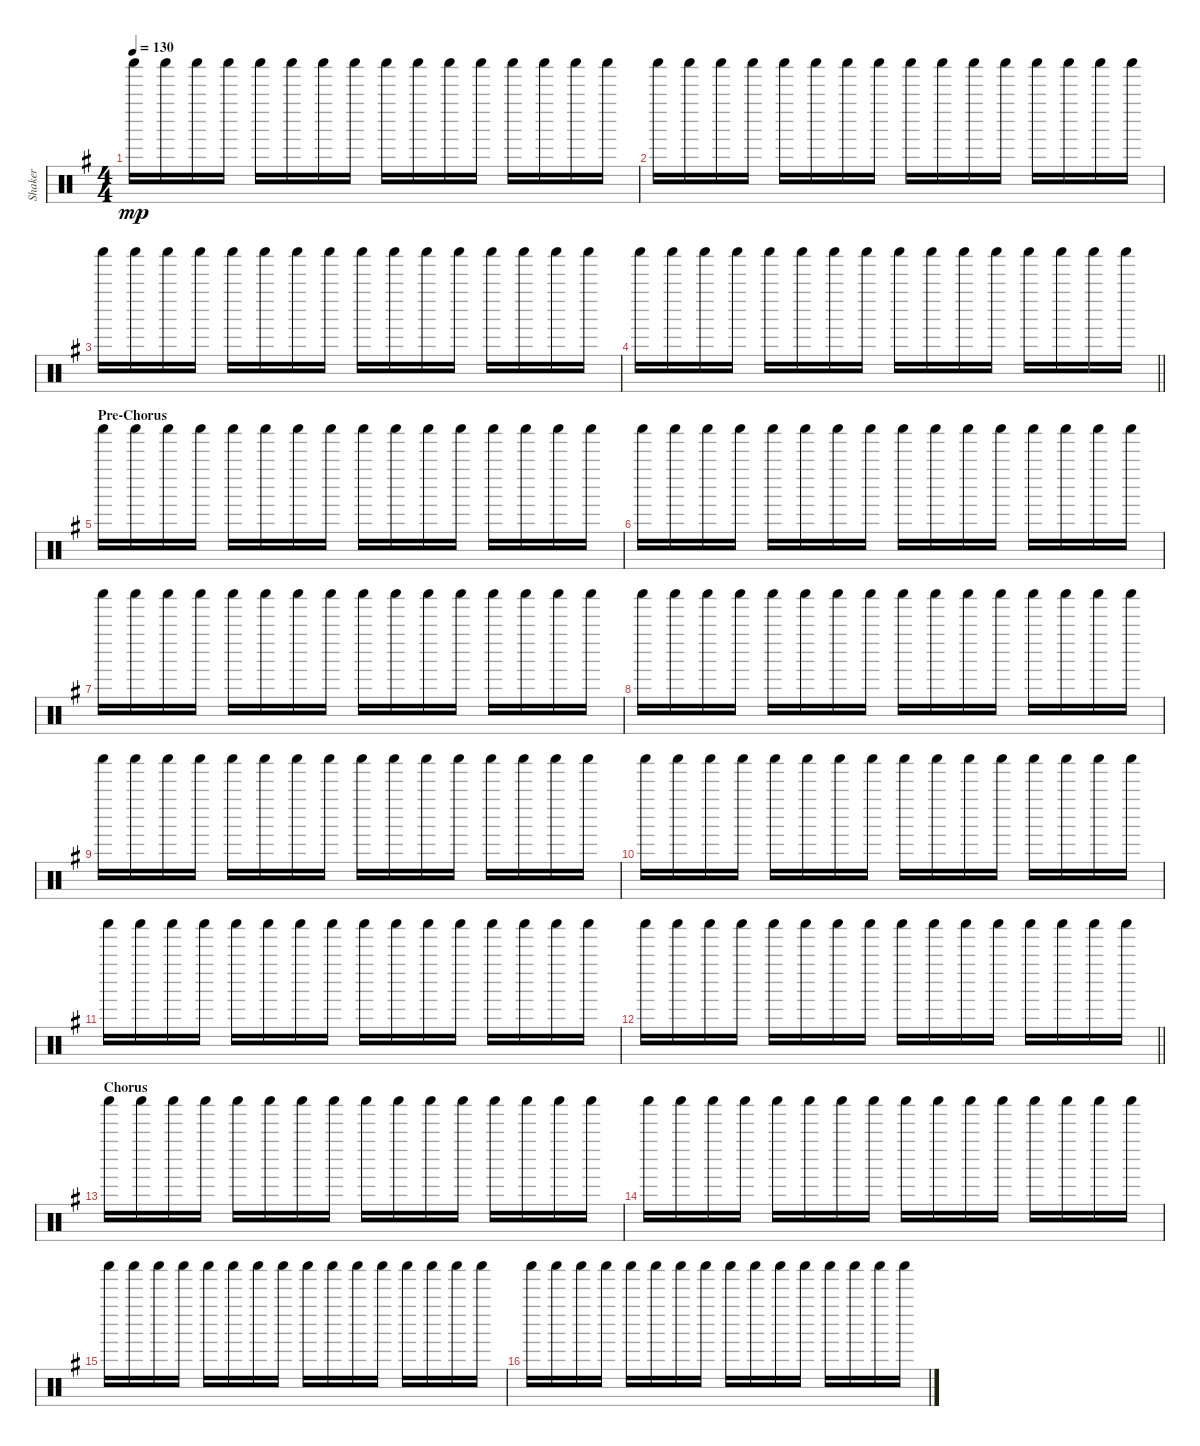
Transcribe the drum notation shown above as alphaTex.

\track ("Shaker" "Shaker") {instrument percussion}
\staff {score}
\articulation defaults
\ts (4 4)
\tempo 130
\clef neutral
\ks g "Shaker (hit)".16{dy mp} "Shaker (hit)".16 "Shaker (hit)".16 "Shaker (hit)".16 "Shaker (hit)".16 "Shaker (hit)".16 "Shaker (hit)".16 "Shaker (hit)".16 "Shaker (hit)".16 "Shaker (hit)".16 "Shaker (hit)".16 "Shaker (hit)".16 "Shaker (hit)".16 "Shaker (hit)".16 "Shaker (hit)".16 "Shaker (hit)".16
|
"Shaker (hit)".16 "Shaker (hit)".16 "Shaker (hit)".16 "Shaker (hit)".16 "Shaker (hit)".16 "Shaker (hit)".16 "Shaker (hit)".16 "Shaker (hit)".16 "Shaker (hit)".16 "Shaker (hit)".16 "Shaker (hit)".16 "Shaker (hit)".16 "Shaker (hit)".16 "Shaker (hit)".16 "Shaker (hit)".16 "Shaker (hit)".16 |
"Shaker (hit)".16 "Shaker (hit)".16 "Shaker (hit)".16 "Shaker (hit)".16 "Shaker (hit)".16 "Shaker (hit)".16 "Shaker (hit)".16 "Shaker (hit)".16 "Shaker (hit)".16 "Shaker (hit)".16 "Shaker (hit)".16 "Shaker (hit)".16 "Shaker (hit)".16 "Shaker (hit)".16 "Shaker (hit)".16 "Shaker (hit)".16 |
\barLineRight lightlight "Shaker (hit)".16 "Shaker (hit)".16 "Shaker (hit)".16 "Shaker (hit)".16 "Shaker (hit)".16 "Shaker (hit)".16 "Shaker (hit)".16 "Shaker (hit)".16 "Shaker (hit)".16 "Shaker (hit)".16 "Shaker (hit)".16 "Shaker (hit)".16 "Shaker (hit)".16 "Shaker (hit)".16 "Shaker (hit)".16 "Shaker (hit)".16
|
\section ("" "Pre-Chorus")
"Shaker (hit)".16 "Shaker (hit)".16 "Shaker (hit)".16 "Shaker (hit)".16 "Shaker (hit)".16 "Shaker (hit)".16 "Shaker (hit)".16 "Shaker (hit)".16 "Shaker (hit)".16 "Shaker (hit)".16 "Shaker (hit)".16 "Shaker (hit)".16 "Shaker (hit)".16 "Shaker (hit)".16 "Shaker (hit)".16 "Shaker (hit)".16 |
"Shaker (hit)".16 "Shaker (hit)".16 "Shaker (hit)".16 "Shaker (hit)".16 "Shaker (hit)".16 "Shaker (hit)".16 "Shaker (hit)".16 "Shaker (hit)".16 "Shaker (hit)".16 "Shaker (hit)".16 "Shaker (hit)".16 "Shaker (hit)".16 "Shaker (hit)".16 "Shaker (hit)".16 "Shaker (hit)".16 "Shaker (hit)".16 |
"Shaker (hit)".16 "Shaker (hit)".16 "Shaker (hit)".16 "Shaker (hit)".16 "Shaker (hit)".16 "Shaker (hit)".16 "Shaker (hit)".16 "Shaker (hit)".16 "Shaker (hit)".16 "Shaker (hit)".16 "Shaker (hit)".16 "Shaker (hit)".16 "Shaker (hit)".16 "Shaker (hit)".16 "Shaker (hit)".16 "Shaker (hit)".16 |
"Shaker (hit)".16 "Shaker (hit)".16 "Shaker (hit)".16 "Shaker (hit)".16 "Shaker (hit)".16 "Shaker (hit)".16 "Shaker (hit)".16 "Shaker (hit)".16 "Shaker (hit)".16 "Shaker (hit)".16 "Shaker (hit)".16 "Shaker (hit)".16 "Shaker (hit)".16 "Shaker (hit)".16 "Shaker (hit)".16 "Shaker (hit)".16 |
"Shaker (hit)".16 "Shaker (hit)".16 "Shaker (hit)".16 "Shaker (hit)".16 "Shaker (hit)".16 "Shaker (hit)".16 "Shaker (hit)".16 "Shaker (hit)".16 "Shaker (hit)".16 "Shaker (hit)".16 "Shaker (hit)".16 "Shaker (hit)".16 "Shaker (hit)".16 "Shaker (hit)".16 "Shaker (hit)".16 "Shaker (hit)".16 |
"Shaker (hit)".16 "Shaker (hit)".16 "Shaker (hit)".16 "Shaker (hit)".16 "Shaker (hit)".16 "Shaker (hit)".16 "Shaker (hit)".16 "Shaker (hit)".16 "Shaker (hit)".16 "Shaker (hit)".16 "Shaker (hit)".16 "Shaker (hit)".16 "Shaker (hit)".16 "Shaker (hit)".16 "Shaker (hit)".16 "Shaker (hit)".16 |
"Shaker (hit)".16 "Shaker (hit)".16 "Shaker (hit)".16 "Shaker (hit)".16 "Shaker (hit)".16 "Shaker (hit)".16 "Shaker (hit)".16 "Shaker (hit)".16 "Shaker (hit)".16 "Shaker (hit)".16 "Shaker (hit)".16 "Shaker (hit)".16 "Shaker (hit)".16 "Shaker (hit)".16 "Shaker (hit)".16 "Shaker (hit)".16 |
\barLineRight lightlight "Shaker (hit)".16 "Shaker (hit)".16 "Shaker (hit)".16 "Shaker (hit)".16 "Shaker (hit)".16 "Shaker (hit)".16 "Shaker (hit)".16 "Shaker (hit)".16 "Shaker (hit)".16 "Shaker (hit)".16 "Shaker (hit)".16 "Shaker (hit)".16 "Shaker (hit)".16 "Shaker (hit)".16 "Shaker (hit)".16 "Shaker (hit)".16
|
\section ("" "Chorus")
"Shaker (hit)".16 "Shaker (hit)".16 "Shaker (hit)".16 "Shaker (hit)".16 "Shaker (hit)".16 "Shaker (hit)".16 "Shaker (hit)".16 "Shaker (hit)".16 "Shaker (hit)".16 "Shaker (hit)".16 "Shaker (hit)".16 "Shaker (hit)".16 "Shaker (hit)".16 "Shaker (hit)".16 "Shaker (hit)".16 "Shaker (hit)".16 |
"Shaker (hit)".16 "Shaker (hit)".16 "Shaker (hit)".16 "Shaker (hit)".16 "Shaker (hit)".16 "Shaker (hit)".16 "Shaker (hit)".16 "Shaker (hit)".16 "Shaker (hit)".16 "Shaker (hit)".16 "Shaker (hit)".16 "Shaker (hit)".16 "Shaker (hit)".16 "Shaker (hit)".16 "Shaker (hit)".16 "Shaker (hit)".16 |
"Shaker (hit)".16 "Shaker (hit)".16 "Shaker (hit)".16 "Shaker (hit)".16 "Shaker (hit)".16 "Shaker (hit)".16 "Shaker (hit)".16 "Shaker (hit)".16 "Shaker (hit)".16 "Shaker (hit)".16 "Shaker (hit)".16 "Shaker (hit)".16 "Shaker (hit)".16 "Shaker (hit)".16 "Shaker (hit)".16 "Shaker (hit)".16 |
"Shaker (hit)".16 "Shaker (hit)".16 "Shaker (hit)".16 "Shaker (hit)".16 "Shaker (hit)".16 "Shaker (hit)".16 "Shaker (hit)".16 "Shaker (hit)".16 "Shaker (hit)".16 "Shaker (hit)".16 "Shaker (hit)".16 "Shaker (hit)".16 "Shaker (hit)".16 "Shaker (hit)".16 "Shaker (hit)".16 "Shaker (hit)".16
